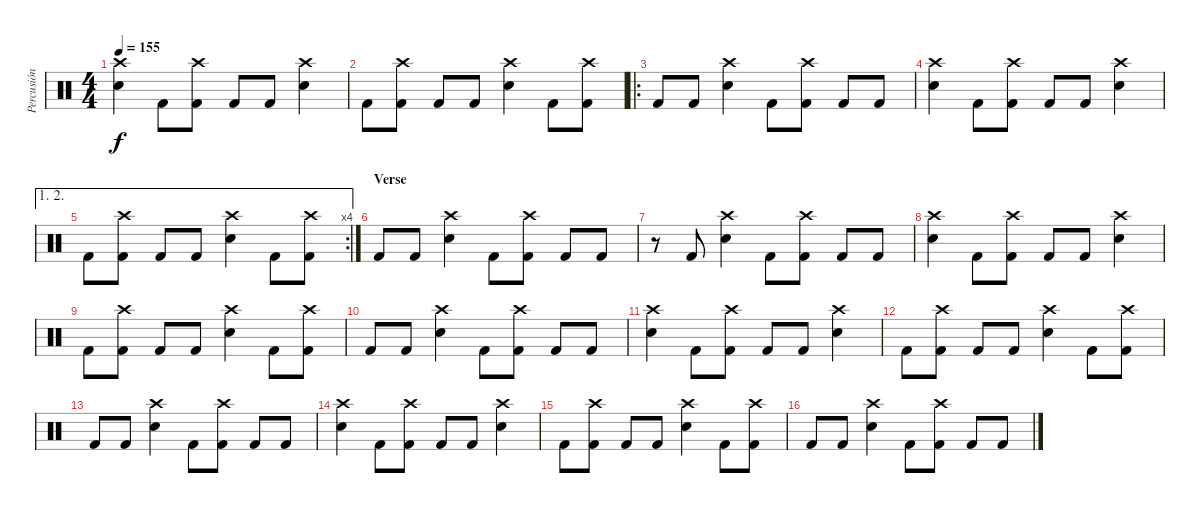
\track ("Percusión" "Percusión") {instrument percussion}
\staff {score}
\articulation defaults
\ts (4 4)
\tempo 155
\clef neutral
\ks c
("Crash high (hit)" "Electric Snare (hit)").4{dy f} "Kick (hit) 2".8 ("Crash high (hit)" "Kick (hit) 2").8 "Kick (hit) 2".8 "Kick (hit) 2".8 ("Crash high (hit)" "Electric Snare (hit)").4 |
"Kick (hit) 2".8 ("Crash high (hit)" "Kick (hit) 2").8 "Kick (hit) 2".8 "Kick (hit) 2".8 ("Crash high (hit)" "Electric Snare (hit)").4 "Kick (hit) 2".8 ("Crash high (hit)" "Kick (hit) 2").8 |
\ro "Kick (hit) 2".8 "Kick (hit) 2".8
("Crash high (hit)" "Electric Snare (hit)").4 "Kick (hit) 2".8 ("Crash high (hit)" "Kick (hit) 2").8 "Kick (hit) 2".8 "Kick (hit) 2".8 |
("Crash high (hit)" "Electric Snare (hit)").4 "Kick (hit) 2".8 ("Crash high (hit)" "Kick (hit) 2").8 "Kick (hit) 2".8 "Kick (hit) 2".8 ("Crash high (hit)" "Electric Snare (hit)").4 |
\ae (1 2)
\rc 4 "Kick (hit) 2".8
("Crash high (hit)" "Kick (hit) 2").8 "Kick (hit) 2".8 "Kick (hit) 2".8 ("Crash high (hit)" "Electric Snare (hit)").4 "Kick (hit) 2".8 ("Crash high (hit)" "Kick (hit) 2").8 |
\section ("" "Verse")
"Kick (hit) 2".8 "Kick (hit) 2".8 ("Crash high (hit)" "Electric Snare (hit)").4 "Kick (hit) 2".8 ("Crash high (hit)" "Kick (hit) 2").8 "Kick (hit) 2".8 "Kick (hit) 2".8 |
r.8 "Kick (hit) 2".8 ("Electric Snare (hit)" "Crash high (hit)").4 "Kick (hit) 2".8 ("Crash high (hit)" "Kick (hit) 2").8 "Kick (hit) 2".8 "Kick (hit) 2".8 |
("Crash high (hit)" "Electric Snare (hit)").4 "Kick (hit) 2".8 ("Crash high (hit)" "Kick (hit) 2").8 "Kick (hit) 2".8 "Kick (hit) 2".8 ("Crash high (hit)" "Electric Snare (hit)").4 |
"Kick (hit) 2".8 ("Crash high (hit)" "Kick (hit) 2").8 "Kick (hit) 2".8 "Kick (hit) 2".8 ("Crash high (hit)" "Electric Snare (hit)").4 "Kick (hit) 2".8 ("Crash high (hit)" "Kick (hit) 2").8 |
"Kick (hit) 2".8 "Kick (hit) 2".8 ("Crash high (hit)" "Electric Snare (hit)").4 "Kick (hit) 2".8 ("Crash high (hit)" "Kick (hit) 2").8 "Kick (hit) 2".8 "Kick (hit) 2".8 |
("Crash high (hit)" "Electric Snare (hit)").4 "Kick (hit) 2".8 ("Crash high (hit)" "Kick (hit) 2").8 "Kick (hit) 2".8 "Kick (hit) 2".8 ("Crash high (hit)" "Electric Snare (hit)").4 |
"Kick (hit) 2".8 ("Crash high (hit)" "Kick (hit) 2").8 "Kick (hit) 2".8 "Kick (hit) 2".8 ("Crash high (hit)" "Electric Snare (hit)").4 "Kick (hit) 2".8 ("Crash high (hit)" "Kick (hit) 2").8 |
"Kick (hit) 2".8 "Kick (hit) 2".8 ("Crash high (hit)" "Electric Snare (hit)").4 "Kick (hit) 2".8 ("Crash high (hit)" "Kick (hit) 2").8 "Kick (hit) 2".8 "Kick (hit) 2".8 |
("Crash high (hit)" "Electric Snare (hit)").4 "Kick (hit) 2".8 ("Crash high (hit)" "Kick (hit) 2").8 "Kick (hit) 2".8 "Kick (hit) 2".8 ("Crash high (hit)" "Electric Snare (hit)").4 |
"Kick (hit) 2".8 ("Crash high (hit)" "Kick (hit) 2").8 "Kick (hit) 2".8 "Kick (hit) 2".8 ("Crash high (hit)" "Electric Snare (hit)").4 "Kick (hit) 2".8 ("Crash high (hit)" "Kick (hit) 2").8 |
"Kick (hit) 2".8 "Kick (hit) 2".8 ("Crash high (hit)" "Electric Snare (hit)").4 "Kick (hit) 2".8 ("Crash high (hit)" "Kick (hit) 2").8 "Kick (hit) 2".8 "Kick (hit) 2".8
